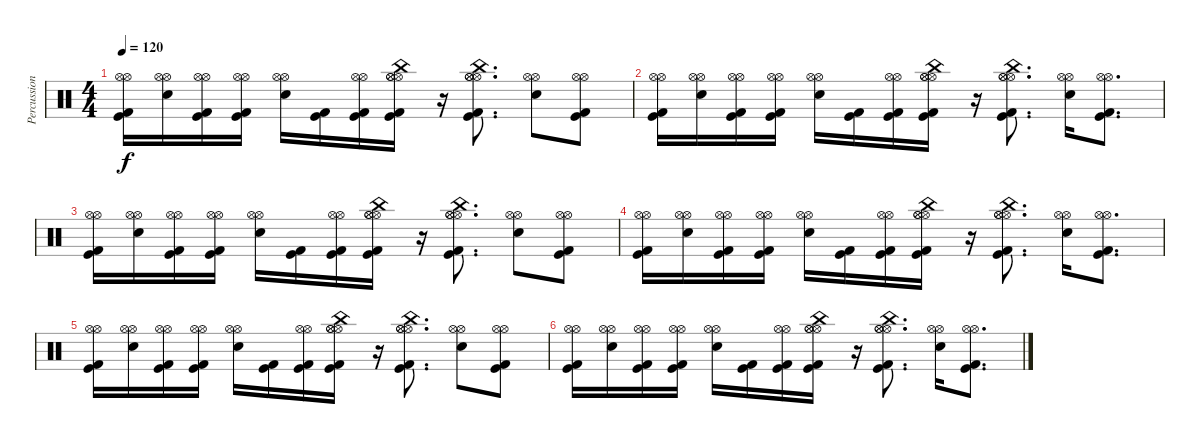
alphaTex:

\track ("Percussions" "Percussion") {instrument percussion}
\staff {score}
\articulation defaults
\ts (4 4)
\tempo 120
\clef neutral
\ks c
("Hi-Hat (open)" "Hi-Hat (open)" "Kick (hit)" "Kick (hit) 2").16{dy f} ("Hi-Hat (open)" "Hi-Hat (open)" "Electric Snare (hit)").16 ("Hi-Hat (open)" "Hi-Hat (open)" "Kick (hit)" "Kick (hit) 2").16 ("Hi-Hat (open)" "Hi-Hat (open)" "Kick (hit) 2" "Kick (hit)").16 ("Hi-Hat (open)" "Hi-Hat (open)" "Electric Snare (hit)").16 ("Kick (hit) 2" "Kick (hit)").16 ("Hi-Hat (open)" "Hi-Hat (open)" "Kick (hit)" "Kick (hit) 2").16 ("China (hit)" "Hi-Hat (open)" "Hi-Hat (open)" "Hi-Hat (open)" "Kick (hit)" "Kick (hit) 2").16 r.16 ("China (hit)" "Hi-Hat (open)" "Hi-Hat (open)" "Hi-Hat (open)" "Kick (hit) 2" "Kick (hit)").8{d} ("Hi-Hat (open)" "Hi-Hat (open)" "Electric Snare (hit)").8 ("Hi-Hat (open)" "Hi-Hat (open)" "Kick (hit)" "Kick (hit) 2").8 |
("Hi-Hat (open)" "Hi-Hat (open)" "Kick (hit)" "Kick (hit) 2").16 ("Hi-Hat (open)" "Hi-Hat (open)" "Electric Snare (hit)").16 ("Hi-Hat (open)" "Hi-Hat (open)" "Kick (hit)" "Kick (hit) 2").16 ("Hi-Hat (open)" "Hi-Hat (open)" "Kick (hit) 2" "Kick (hit)").16 ("Hi-Hat (open)" "Hi-Hat (open)" "Electric Snare (hit)").16 ("Kick (hit) 2" "Kick (hit)").16 ("Hi-Hat (open)" "Hi-Hat (open)" "Kick (hit)" "Kick (hit) 2").16 ("China (hit)" "Hi-Hat (open)" "Hi-Hat (open)" "Hi-Hat (open)" "Kick (hit)" "Kick (hit) 2").16 r.16 ("China (hit)" "Hi-Hat (open)" "Hi-Hat (open)" "Hi-Hat (open)" "Kick (hit) 2" "Kick (hit)").8{d} ("Hi-Hat (open)" "Hi-Hat (open)" "Electric Snare (hit)").16 ("Hi-Hat (open)" "Hi-Hat (open)" "Kick (hit)" "Kick (hit) 2").8{d} |
("Hi-Hat (open)" "Hi-Hat (open)" "Kick (hit)" "Kick (hit) 2").16 ("Hi-Hat (open)" "Hi-Hat (open)" "Electric Snare (hit)").16 ("Hi-Hat (open)" "Hi-Hat (open)" "Kick (hit)" "Kick (hit) 2").16 ("Hi-Hat (open)" "Hi-Hat (open)" "Kick (hit) 2" "Kick (hit)").16 ("Hi-Hat (open)" "Hi-Hat (open)" "Electric Snare (hit)").16 ("Kick (hit) 2" "Kick (hit)").16 ("Hi-Hat (open)" "Hi-Hat (open)" "Kick (hit)" "Kick (hit) 2").16 ("China (hit)" "Hi-Hat (open)" "Hi-Hat (open)" "Hi-Hat (open)" "Kick (hit)" "Kick (hit) 2").16 r.16 ("China (hit)" "Hi-Hat (open)" "Hi-Hat (open)" "Hi-Hat (open)" "Kick (hit) 2" "Kick (hit)").8{d} ("Hi-Hat (open)" "Hi-Hat (open)" "Electric Snare (hit)").8 ("Hi-Hat (open)" "Hi-Hat (open)" "Kick (hit)" "Kick (hit) 2").8 |
("Hi-Hat (open)" "Hi-Hat (open)" "Kick (hit)" "Kick (hit) 2").16 ("Hi-Hat (open)" "Hi-Hat (open)" "Electric Snare (hit)").16 ("Hi-Hat (open)" "Hi-Hat (open)" "Kick (hit)" "Kick (hit) 2").16 ("Hi-Hat (open)" "Hi-Hat (open)" "Kick (hit) 2" "Kick (hit)").16 ("Hi-Hat (open)" "Hi-Hat (open)" "Electric Snare (hit)").16 ("Kick (hit) 2" "Kick (hit)").16 ("Hi-Hat (open)" "Hi-Hat (open)" "Kick (hit)" "Kick (hit) 2").16 ("China (hit)" "Hi-Hat (open)" "Hi-Hat (open)" "Hi-Hat (open)" "Kick (hit)" "Kick (hit) 2").16 r.16 ("China (hit)" "Hi-Hat (open)" "Hi-Hat (open)" "Hi-Hat (open)" "Kick (hit) 2" "Kick (hit)").8{d} ("Hi-Hat (open)" "Hi-Hat (open)" "Electric Snare (hit)").16 ("Hi-Hat (open)" "Hi-Hat (open)" "Kick (hit)" "Kick (hit) 2").8{d} |
("Hi-Hat (open)" "Hi-Hat (open)" "Kick (hit)" "Kick (hit) 2").16 ("Hi-Hat (open)" "Hi-Hat (open)" "Electric Snare (hit)").16 ("Hi-Hat (open)" "Hi-Hat (open)" "Kick (hit)" "Kick (hit) 2").16 ("Hi-Hat (open)" "Hi-Hat (open)" "Kick (hit) 2" "Kick (hit)").16 ("Hi-Hat (open)" "Hi-Hat (open)" "Electric Snare (hit)").16 ("Kick (hit) 2" "Kick (hit)").16 ("Hi-Hat (open)" "Hi-Hat (open)" "Kick (hit)" "Kick (hit) 2").16 ("China (hit)" "Hi-Hat (open)" "Hi-Hat (open)" "Hi-Hat (open)" "Kick (hit)" "Kick (hit) 2").16 r.16 ("China (hit)" "Hi-Hat (open)" "Hi-Hat (open)" "Hi-Hat (open)" "Kick (hit) 2" "Kick (hit)").8{d} ("Hi-Hat (open)" "Hi-Hat (open)" "Electric Snare (hit)").8 ("Hi-Hat (open)" "Hi-Hat (open)" "Kick (hit)" "Kick (hit) 2").8 |
("Hi-Hat (open)" "Hi-Hat (open)" "Kick (hit)" "Kick (hit) 2").16 ("Hi-Hat (open)" "Hi-Hat (open)" "Electric Snare (hit)").16 ("Hi-Hat (open)" "Hi-Hat (open)" "Kick (hit)" "Kick (hit) 2").16 ("Hi-Hat (open)" "Hi-Hat (open)" "Kick (hit) 2" "Kick (hit)").16 ("Hi-Hat (open)" "Hi-Hat (open)" "Electric Snare (hit)").16 ("Kick (hit) 2" "Kick (hit)").16 ("Hi-Hat (open)" "Hi-Hat (open)" "Kick (hit)" "Kick (hit) 2").16 ("China (hit)" "Hi-Hat (open)" "Hi-Hat (open)" "Hi-Hat (open)" "Kick (hit)" "Kick (hit) 2").16 r.16 ("China (hit)" "Hi-Hat (open)" "Hi-Hat (open)" "Hi-Hat (open)" "Kick (hit) 2" "Kick (hit)").8{d} ("Hi-Hat (open)" "Hi-Hat (open)" "Electric Snare (hit)").16 ("Hi-Hat (open)" "Hi-Hat (open)" "Kick (hit)" "Kick (hit) 2").8{d}
